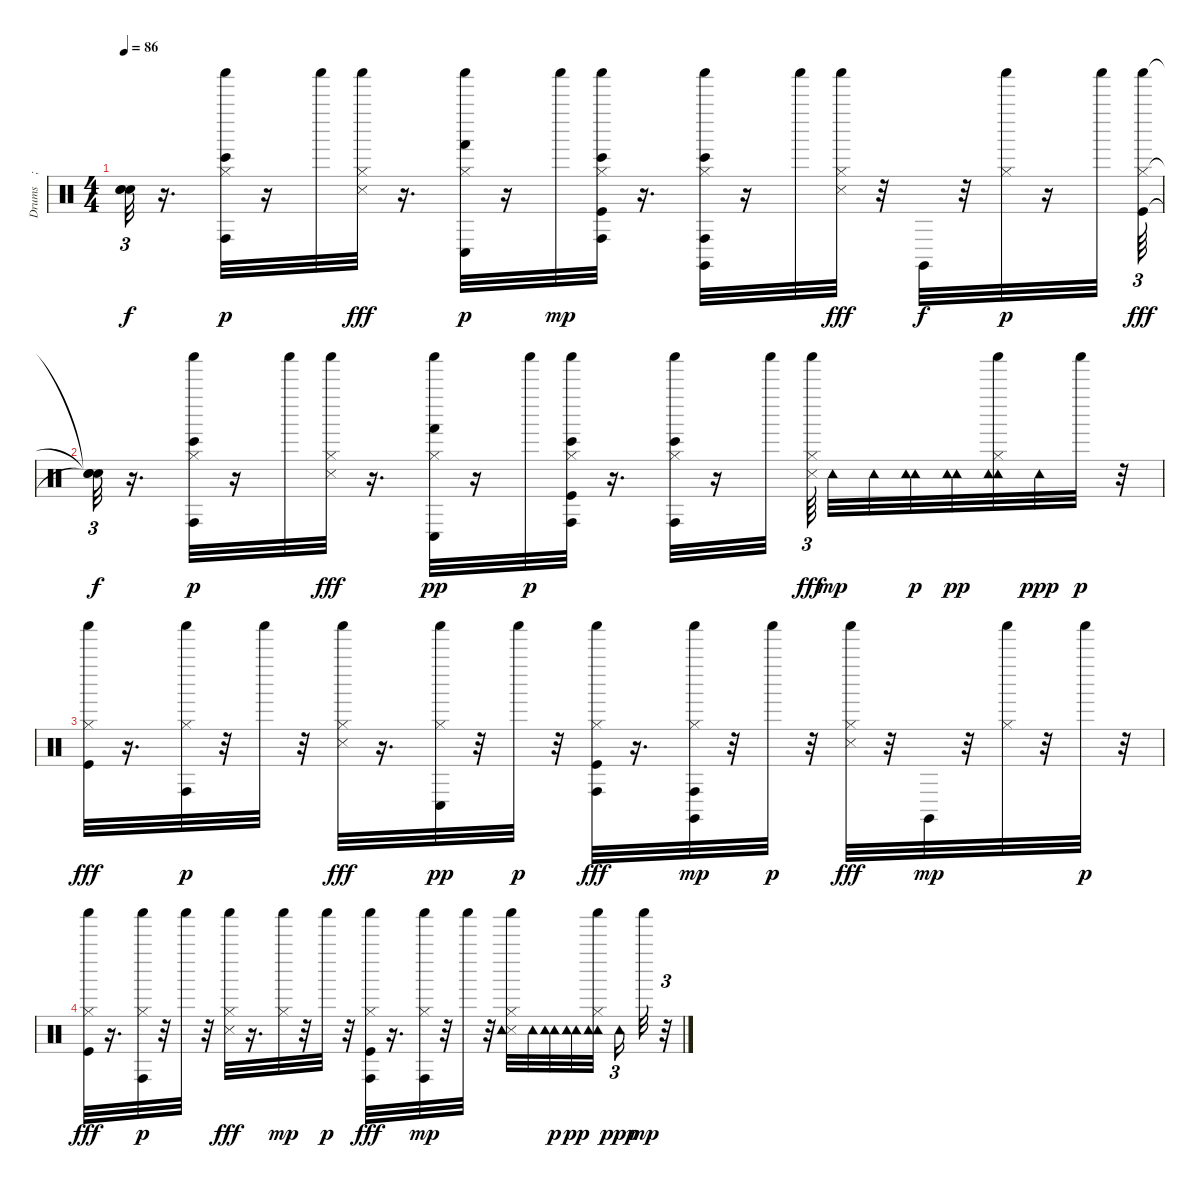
\track ("Drums    ; Standard" "Drums    ;") {instrument percussion}
\staff {score}
\articulation defaults
\ts (4 4)
\tempo 86
\clef neutral
\ks c
("Snare (hit)"{t} "Snare (hit)"{t} "Snare (hit)"{t}).32{tu (3 2) dy f} r.16{d} ("Shaker (hit)" "Hi-Hat (closed)" "Conga high (hit)" "Bongo High (hit)").32{dy p} r.16 "Shaker (hit)".32 ("Snare (side stick) 3" "Shaker (hit)" "Hi-Hat (closed)").32{dy fff} r.16{d} ("Shaker (hit)" "Hi-Hat (closed)" "Conga low (hit)" "Hand (hit)").32{dy p} r.16 "Shaker (hit)".32{dy mp} ("Kick (hit)" "Shaker (hit)" "Hi-Hat (closed)" "Conga high (hit)" "Bongo High (hit)").32 r.16{d} ("Hi-Hat (closed)" "Shaker (hit)" "Claves (hit)" "Conga high (hit)" "Bongo High (hit)").32 r.16 "Shaker (hit)".32 ("Shaker (hit)" "Snare (side stick) 3" "Hi-Hat (closed)").32{dy fff} r.32 "Claves (hit)".32{dy f} r.32 ("Shaker (hit)" "Hi-Hat (closed)").32{dy p} r.16 "Shaker (hit)".32 ("Shaker (hit)" "Kick (hit)" "Hi-Hat (closed)").64{tu (3 2) dy fff} |
("Snare (hit)"{t} "Snare (hit)"{t} "Snare (hit)"{t}).32{tu (3 2) dy f} r.16{d} ("Shaker (hit)" "Hi-Hat (closed)" "Conga high (hit)" "Bongo High (hit)").32{dy p} r.16 "Shaker (hit)".32 ("Shaker (hit)" "Hi-Hat (closed)" "Snare (side stick) 3").32{dy fff} r.16{d} ("Hi-Hat (closed)" "Shaker (hit)" "Conga low (hit)" "Hand (hit)").32{dy pp} r.16 "Shaker (hit)".32{dy p} ("Kick (hit)" "Hi-Hat (closed)" "Shaker (hit)" "Conga high (hit)" "Bongo High (hit)").32 r.16{d} ("Shaker (hit)" "Conga high (hit)" "Bongo High (hit)" "Hi-Hat (closed)").32 r.16 "Shaker (hit)".32 ("Shaker (hit)" "Snare (side stick) 3" "Hi-Hat (closed)").64{tu (3 2) dy fff} "Tambourine (hit)".32{dy mp} "Tambourine (hit)".32 ("Tambourine (hit)" "Tambourine (hit)").32{dy p} ("Tambourine (hit)" "Tambourine (hit)").32{dy pp} ("Tambourine (hit)" "Shaker (hit)" "Hi-Hat (closed)" "Tambourine (hit)").32 "Tambourine (hit)".32{dy ppp} "Shaker (hit)".32{dy p} r.32 |
("Kick (hit)" "Shaker (hit)" "Hi-Hat (closed)").32{dy fff} r.16{d} ("Shaker (hit)" "Hi-Hat (closed)" "Conga high (hit)").32{dy p} r.32 "Shaker (hit)".32 r.32 ("Shaker (hit)" "Hi-Hat (closed)" "Snare (side stick) 3").32{dy fff} r.16{d} ("Shaker (hit)" "Hi-Hat (closed)" "Conga low (hit)").32{dy pp} r.32 "Shaker (hit)".32{dy p} r.32 ("Kick (hit)" "Shaker (hit)" "Conga high (hit)" "Hi-Hat (closed)").32{dy fff} r.16{d} ("Conga high (hit)" "Shaker (hit)" "Hi-Hat (closed)" "Claves (hit)").32{dy mp} r.32 "Shaker (hit)".32{dy p} r.32 ("Snare (side stick) 3" "Shaker (hit)" "Hi-Hat (closed)").32{dy fff} r.32 "Claves (hit)".32{dy mp} r.32 ("Shaker (hit)" "Hi-Hat (closed)").32 r.32 "Shaker (hit)".32{dy p} r.32 |
("Kick (hit)" "Shaker (hit)" "Hi-Hat (closed)").32{dy fff} r.16{d} ("Shaker (hit)" "Hi-Hat (closed)" "Conga high (hit)").32{dy p} r.32 "Shaker (hit)".32 r.32 ("Shaker (hit)" "Hi-Hat (closed)" "Snare (side stick) 3").32{dy fff} r.16{d} ("Shaker (hit)" "Hi-Hat (closed)").32{dy mp} r.32 "Shaker (hit)".32{dy p} r.32 ("Kick (hit)" "Shaker (hit)" "Conga high (hit)" "Hi-Hat (closed)").32{dy fff} r.16{d} ("Conga high (hit)" "Shaker (hit)" "Hi-Hat (closed)").32{dy mp} r.32 "Shaker (hit)".32 r.32 ("Snare (side stick) 3" "Shaker (hit)" "Hi-Hat (closed)" "Tambourine (hit)").32 "Tambourine (hit)".32 ("Tambourine (hit)" "Tambourine (hit)").32{dy p} ("Tambourine (hit)" "Tambourine (hit)").32{dy pp} ("Tambourine (hit)" "Shaker (hit)" "Hi-Hat (closed)" "Tambourine (hit)").32 "Tambourine (hit)".16{tu (3 2) dy ppp} "Shaker (hit)".32{dy mp} r.32{tu (3 2)}
